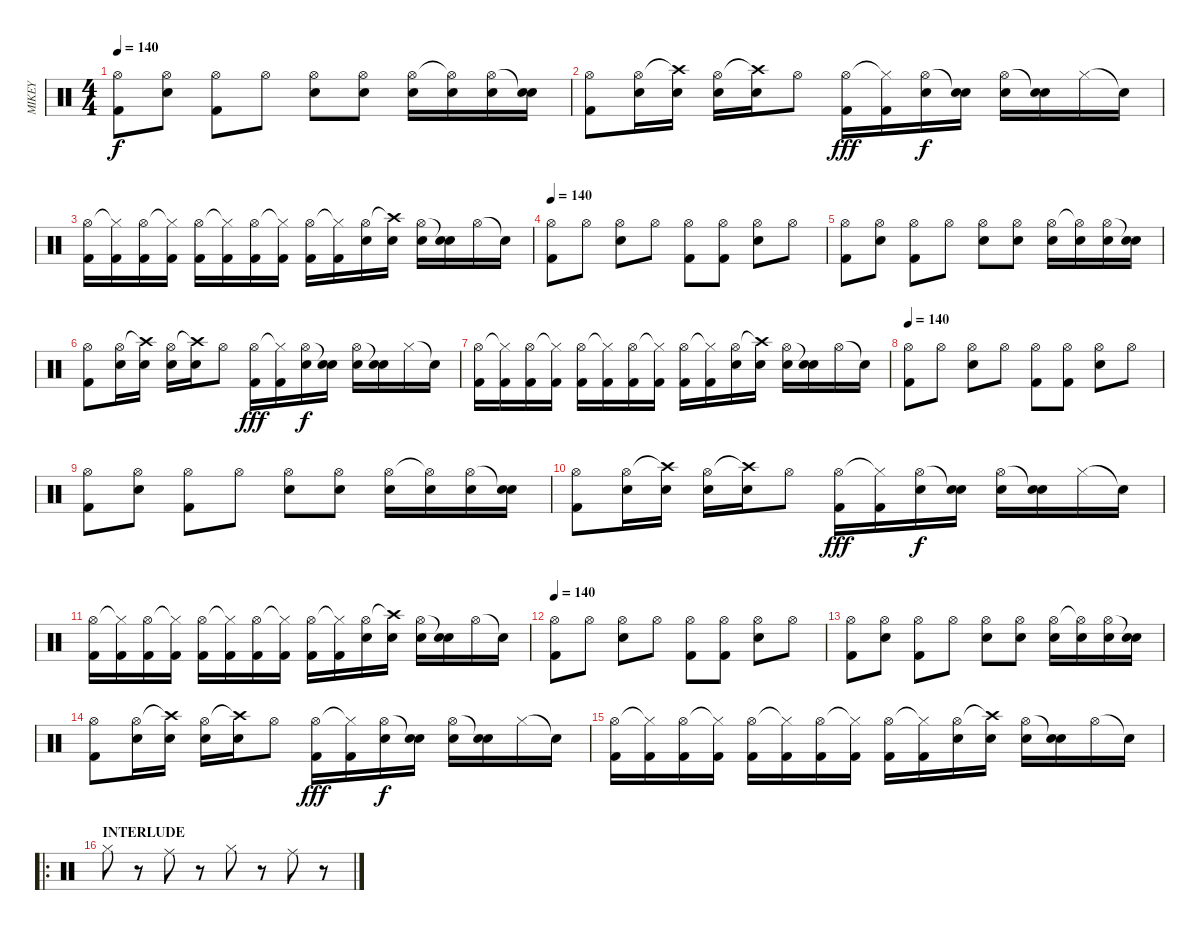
\track ("MIKEY" "MIKEY") {instrument percussion}
\staff {score}
\articulation defaults
\ts (4 4)
\tempo 140
\clef neutral
\ks c
("Hi-Hat (open)" "Kick (hit) 2").8{dy f} ("Hi-Hat (open)" "Electric Snare (hit)").8 ("Hi-Hat (open)" "Kick (hit) 2").8 "Hi-Hat (open)".8 ("Hi-Hat (open)" "Electric Snare (hit)").8 ("Hi-Hat (open)" "Electric Snare (hit)").8 ("Hi-Hat (open)" "Electric Snare (hit)").16 ("Hi-Hat (open)"{t} "Electric Snare (hit)").16 ("Hi-Hat (open)" "Electric Snare (hit)").16 ("Snare (hit)"{t} "Electric Snare (hit)").16 |
("Hi-Hat (open)" "Kick (hit) 2").8 ("Hi-Hat (open)" "Electric Snare (hit)").16 ("Crash high (hit)"{t} "Electric Snare (hit)").16 ("Hi-Hat (open)" "Electric Snare (hit)").16 ("Crash high (hit)"{t} "Electric Snare (hit)").16 "Hi-Hat (open)".8 ("Hi-Hat (open)" "Kick (hit) 2").16{dy fff} ("Hi-Hat (closed)"{t} "Kick (hit) 2").16 ("Hi-Hat (open)" "Electric Snare (hit)").16{dy f} ("Snare (hit)"{t} "Electric Snare (hit)").16 ("Hi-Hat (open)" "Electric Snare (hit)").16 ("Snare (hit)"{t} "Electric Snare (hit)").16 "Hi-Hat (closed)".16 "Snare (hit)"{t}.16 |
("Hi-Hat (open)" "Kick (hit) 2").16 ("Hi-Hat (closed)"{t} "Kick (hit) 2").16 ("Hi-Hat (open)" "Kick (hit) 2").16 ("Hi-Hat (closed)"{t} "Kick (hit) 2").16 ("Hi-Hat (open)" "Kick (hit) 2").16 ("Hi-Hat (closed)"{t} "Kick (hit) 2").16 ("Hi-Hat (open)" "Kick (hit) 2").16 ("Hi-Hat (closed)"{t} "Kick (hit) 2").16 ("Hi-Hat (open)" "Kick (hit) 2").16 ("Hi-Hat (closed)"{t} "Kick (hit) 2").16 ("Hi-Hat (open)" "Electric Snare (hit)").16 ("Crash high (hit)"{t} "Electric Snare (hit)").16 ("Hi-Hat (open)" "Electric Snare (hit)").16 ("Snare (hit)"{t} "Electric Snare (hit)").16 "Hi-Hat (open)".16 "Snare (hit)"{t}.16 |
\tempo 140
("Hi-Hat (open)" "Kick (hit) 2").8 "Hi-Hat (open)".8 ("Hi-Hat (open)" "Electric Snare (hit)").8 "Hi-Hat (open)".8 ("Hi-Hat (open)" "Kick (hit) 2").8 ("Hi-Hat (open)" "Kick (hit) 2").8 ("Hi-Hat (open)" "Electric Snare (hit)").8 "Hi-Hat (open)".8 |
("Hi-Hat (open)" "Kick (hit) 2").8 ("Hi-Hat (open)" "Electric Snare (hit)").8 ("Hi-Hat (open)" "Kick (hit) 2").8 "Hi-Hat (open)".8 ("Hi-Hat (open)" "Electric Snare (hit)").8 ("Hi-Hat (open)" "Electric Snare (hit)").8 ("Hi-Hat (open)" "Electric Snare (hit)").16 ("Hi-Hat (open)"{t} "Electric Snare (hit)").16 ("Hi-Hat (open)" "Electric Snare (hit)").16 ("Snare (hit)"{t} "Electric Snare (hit)").16 |
("Hi-Hat (open)" "Kick (hit) 2").8 ("Hi-Hat (open)" "Electric Snare (hit)").16 ("Crash high (hit)"{t} "Electric Snare (hit)").16 ("Hi-Hat (open)" "Electric Snare (hit)").16 ("Crash high (hit)"{t} "Electric Snare (hit)").16 "Hi-Hat (open)".8 ("Hi-Hat (open)" "Kick (hit) 2").16{dy fff} ("Hi-Hat (closed)"{t} "Kick (hit) 2").16 ("Hi-Hat (open)" "Electric Snare (hit)").16{dy f} ("Snare (hit)"{t} "Electric Snare (hit)").16 ("Hi-Hat (open)" "Electric Snare (hit)").16 ("Snare (hit)"{t} "Electric Snare (hit)").16 "Hi-Hat (closed)".16 "Snare (hit)"{t}.16 |
("Hi-Hat (open)" "Kick (hit) 2").16 ("Hi-Hat (closed)"{t} "Kick (hit) 2").16 ("Hi-Hat (open)" "Kick (hit) 2").16 ("Hi-Hat (closed)"{t} "Kick (hit) 2").16 ("Hi-Hat (open)" "Kick (hit) 2").16 ("Hi-Hat (closed)"{t} "Kick (hit) 2").16 ("Hi-Hat (open)" "Kick (hit) 2").16 ("Hi-Hat (closed)"{t} "Kick (hit) 2").16 ("Hi-Hat (open)" "Kick (hit) 2").16 ("Hi-Hat (closed)"{t} "Kick (hit) 2").16 ("Hi-Hat (open)" "Electric Snare (hit)").16 ("Crash high (hit)"{t} "Electric Snare (hit)").16 ("Hi-Hat (open)" "Electric Snare (hit)").16 ("Snare (hit)"{t} "Electric Snare (hit)").16 "Hi-Hat (open)".16 "Snare (hit)"{t}.16 |
\tempo 140
("Hi-Hat (open)" "Kick (hit) 2").8 "Hi-Hat (open)".8 ("Hi-Hat (open)" "Electric Snare (hit)").8 "Hi-Hat (open)".8 ("Hi-Hat (open)" "Kick (hit) 2").8 ("Hi-Hat (open)" "Kick (hit) 2").8 ("Hi-Hat (open)" "Electric Snare (hit)").8 "Hi-Hat (open)".8 |
("Hi-Hat (open)" "Kick (hit) 2").8 ("Hi-Hat (open)" "Electric Snare (hit)").8 ("Hi-Hat (open)" "Kick (hit) 2").8 "Hi-Hat (open)".8 ("Hi-Hat (open)" "Electric Snare (hit)").8 ("Hi-Hat (open)" "Electric Snare (hit)").8 ("Hi-Hat (open)" "Electric Snare (hit)").16 ("Hi-Hat (open)"{t} "Electric Snare (hit)").16 ("Hi-Hat (open)" "Electric Snare (hit)").16 ("Snare (hit)"{t} "Electric Snare (hit)").16 |
("Hi-Hat (open)" "Kick (hit) 2").8 ("Hi-Hat (open)" "Electric Snare (hit)").16 ("Crash high (hit)"{t} "Electric Snare (hit)").16 ("Hi-Hat (open)" "Electric Snare (hit)").16 ("Crash high (hit)"{t} "Electric Snare (hit)").16 "Hi-Hat (open)".8 ("Hi-Hat (open)" "Kick (hit) 2").16{dy fff} ("Hi-Hat (closed)"{t} "Kick (hit) 2").16 ("Hi-Hat (open)" "Electric Snare (hit)").16{dy f} ("Snare (hit)"{t} "Electric Snare (hit)").16 ("Hi-Hat (open)" "Electric Snare (hit)").16 ("Snare (hit)"{t} "Electric Snare (hit)").16 "Hi-Hat (closed)".16 "Snare (hit)"{t}.16 |
("Hi-Hat (open)" "Kick (hit) 2").16 ("Hi-Hat (closed)"{t} "Kick (hit) 2").16 ("Hi-Hat (open)" "Kick (hit) 2").16 ("Hi-Hat (closed)"{t} "Kick (hit) 2").16 ("Hi-Hat (open)" "Kick (hit) 2").16 ("Hi-Hat (closed)"{t} "Kick (hit) 2").16 ("Hi-Hat (open)" "Kick (hit) 2").16 ("Hi-Hat (closed)"{t} "Kick (hit) 2").16 ("Hi-Hat (open)" "Kick (hit) 2").16 ("Hi-Hat (closed)"{t} "Kick (hit) 2").16 ("Hi-Hat (open)" "Electric Snare (hit)").16 ("Crash high (hit)"{t} "Electric Snare (hit)").16 ("Hi-Hat (open)" "Electric Snare (hit)").16 ("Snare (hit)"{t} "Electric Snare (hit)").16 "Hi-Hat (open)".16 "Snare (hit)"{t}.16 |
\tempo 140
("Hi-Hat (open)" "Kick (hit) 2").8 "Hi-Hat (open)".8 ("Hi-Hat (open)" "Electric Snare (hit)").8 "Hi-Hat (open)".8 ("Hi-Hat (open)" "Kick (hit) 2").8 ("Hi-Hat (open)" "Kick (hit) 2").8 ("Hi-Hat (open)" "Electric Snare (hit)").8 "Hi-Hat (open)".8 |
("Hi-Hat (open)" "Kick (hit) 2").8 ("Hi-Hat (open)" "Electric Snare (hit)").8 ("Hi-Hat (open)" "Kick (hit) 2").8 "Hi-Hat (open)".8 ("Hi-Hat (open)" "Electric Snare (hit)").8 ("Hi-Hat (open)" "Electric Snare (hit)").8 ("Hi-Hat (open)" "Electric Snare (hit)").16 ("Hi-Hat (open)"{t} "Electric Snare (hit)").16 ("Hi-Hat (open)" "Electric Snare (hit)").16 ("Snare (hit)"{t} "Electric Snare (hit)").16 |
("Hi-Hat (open)" "Kick (hit) 2").8 ("Hi-Hat (open)" "Electric Snare (hit)").16 ("Crash high (hit)"{t} "Electric Snare (hit)").16 ("Hi-Hat (open)" "Electric Snare (hit)").16 ("Crash high (hit)"{t} "Electric Snare (hit)").16 "Hi-Hat (open)".8 ("Hi-Hat (open)" "Kick (hit) 2").16{dy fff} ("Hi-Hat (closed)"{t} "Kick (hit) 2").16 ("Hi-Hat (open)" "Electric Snare (hit)").16{dy f} ("Snare (hit)"{t} "Electric Snare (hit)").16 ("Hi-Hat (open)" "Electric Snare (hit)").16 ("Snare (hit)"{t} "Electric Snare (hit)").16 "Hi-Hat (closed)".16 "Snare (hit)"{t}.16 |
("Hi-Hat (open)" "Kick (hit) 2").16 ("Hi-Hat (closed)"{t} "Kick (hit) 2").16 ("Hi-Hat (open)" "Kick (hit) 2").16 ("Hi-Hat (closed)"{t} "Kick (hit) 2").16 ("Hi-Hat (open)" "Kick (hit) 2").16 ("Hi-Hat (closed)"{t} "Kick (hit) 2").16 ("Hi-Hat (open)" "Kick (hit) 2").16 ("Hi-Hat (closed)"{t} "Kick (hit) 2").16 ("Hi-Hat (open)" "Kick (hit) 2").16 ("Hi-Hat (closed)"{t} "Kick (hit) 2").16 ("Hi-Hat (open)" "Electric Snare (hit)").16 ("Crash high (hit)"{t} "Electric Snare (hit)").16 ("Hi-Hat (open)" "Electric Snare (hit)").16 ("Snare (hit)"{t} "Electric Snare (hit)").16 "Hi-Hat (open)".16 "Snare (hit)"{t}.16 |
\ro
\section ("" "INTERLUDE")
"Hi-Hat (closed)".8 r.8 "Ride (middle)".8 r.8 "Hi-Hat (closed)".8 r.8 "Ride (middle)".8 r.8
